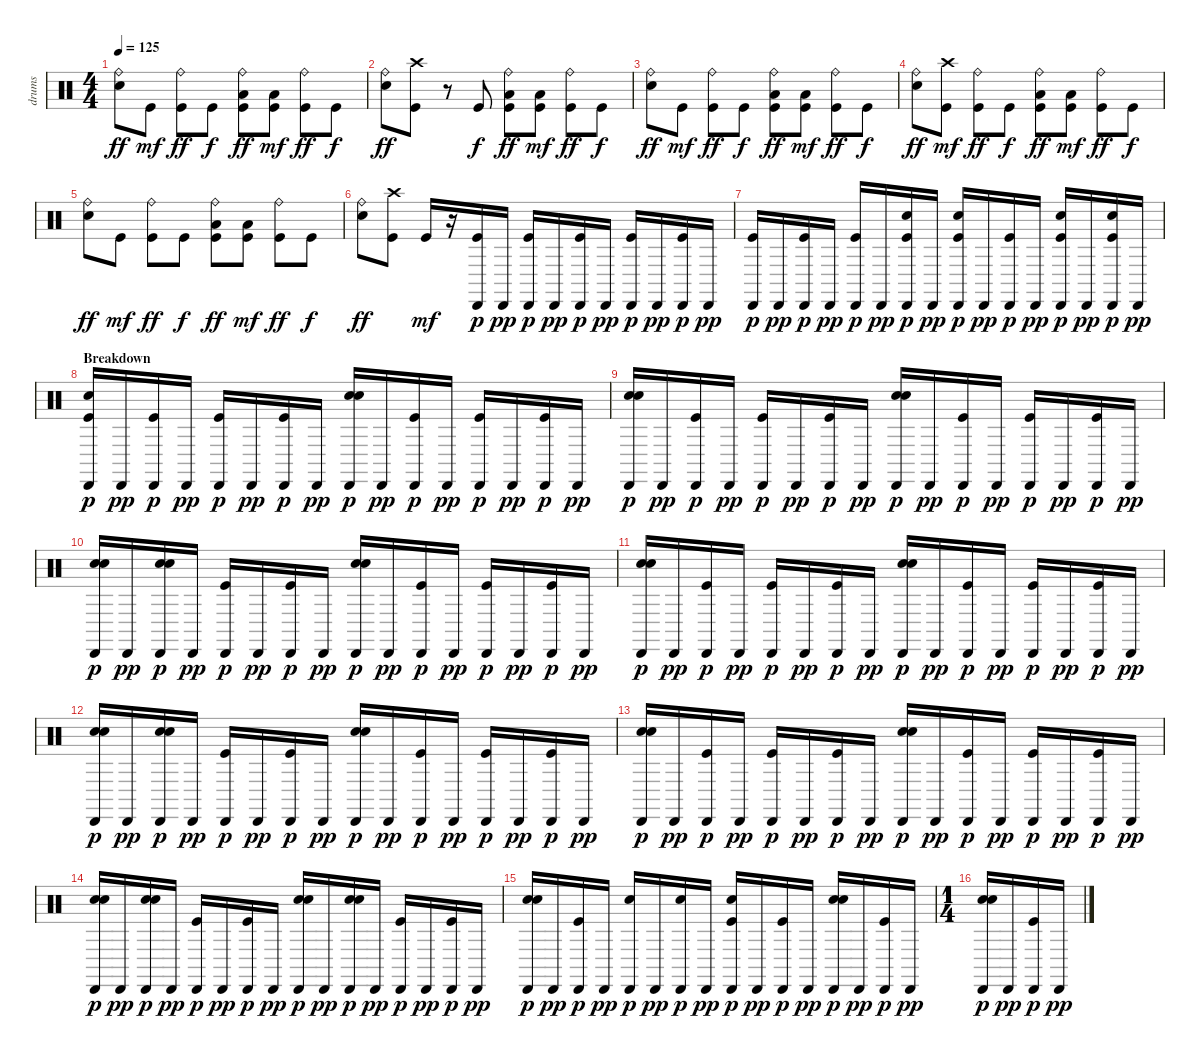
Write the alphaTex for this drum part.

\track ("drums" "drums") {instrument percussion}
\staff {score}
\articulation defaults
\ts (4 4)
\tempo 125
\clef neutral
\ks c
("Electric Snare (hit)" "Ride (bell)").8{dy ff} "Kick (hit)".8{dy mf} ("Kick (hit)" "Ride (bell)").8{dy ff} "Kick (hit)".8{dy f} ("Low Tom (hit)" "Kick (hit)" "Ride (bell)").8{dy ff} ("Low Tom (hit)" "Kick (hit)").8{dy mf} ("Kick (hit)" "Ride (bell)").8{dy ff} "Kick (hit)".8{dy f} |
("Electric Snare (hit)" "Ride (bell)").8{dy ff} ("Kick (hit)" "Crash high (hit)").8 r.8 "Kick (hit)".8{dy f} ("Low Tom (hit)" "Kick (hit)" "Ride (bell)").8{dy ff} ("Low Tom (hit)" "Kick (hit)").8{dy mf} ("Kick (hit)" "Ride (bell)").8{dy ff} "Kick (hit)".8{dy f} |
("Electric Snare (hit)" "Ride (bell)").8{dy ff} "Kick (hit)".8{dy mf} ("Kick (hit)" "Ride (bell)").8{dy ff} "Kick (hit)".8{dy f} ("Low Tom (hit)" "Kick (hit)" "Ride (bell)").8{dy ff} ("Low Tom (hit)" "Kick (hit)").8{dy mf} ("Kick (hit)" "Ride (bell)").8{dy ff} "Kick (hit)".8{dy f} |
("Electric Snare (hit)" "Ride (bell)").8{dy ff} ("Kick (hit)" "Crash high (hit)").8{dy mf} ("Kick (hit)" "Ride (bell)").8{dy ff} "Kick (hit)".8{dy f} ("Low Tom (hit)" "Kick (hit)" "Ride (bell)").8{dy ff} ("Low Tom (hit)" "Kick (hit)").8{dy mf} ("Kick (hit)" "Ride (bell)").8{dy ff} "Kick (hit)".8{dy f} |
("Electric Snare (hit)" "Ride (bell)").8{dy ff} "Kick (hit)".8{dy mf} ("Kick (hit)" "Ride (bell)").8{dy ff} "Kick (hit)".8{dy f} ("Low Tom (hit)" "Kick (hit)" "Ride (bell)").8{dy ff} ("Low Tom (hit)" "Kick (hit)").8{dy mf} ("Kick (hit)" "Ride (bell)").8{dy ff} "Kick (hit)".8{dy f} |
("Electric Snare (hit)" "Ride (bell)").8{dy ff} ("Kick (hit)" "Crash high (hit)").8 "Kick (hit)".16{dy mf} r.16 ("Kick (hit)" "Cabasa (hit)").16{dy p} "Cabasa (hit)".16{dy pp} ("Kick (hit)" "Cabasa (hit)").16{dy p} "Cabasa (hit)".16{dy pp} ("Kick (hit)" "Cabasa (hit)").16{dy p} "Cabasa (hit)".16{dy pp} ("Kick (hit)" "Cabasa (hit)").16{dy p} "Cabasa (hit)".16{dy pp} ("Kick (hit)" "Cabasa (hit)").16{dy p} "Cabasa (hit)".16{dy pp} |
("Kick (hit)" "Cabasa (hit)").16{dy p} "Cabasa (hit)".16{dy pp} ("Kick (hit)" "Cabasa (hit)").16{dy p} "Cabasa (hit)".16{dy pp} ("Kick (hit)" "Cabasa (hit)").16{dy p} "Cabasa (hit)".16{dy pp} ("Electric Snare (hit)" "Kick (hit)" "Cabasa (hit)").16{dy p} "Cabasa (hit)".16{dy pp} ("Electric Snare (hit)" "Kick (hit)" "Cabasa (hit)").16{dy p} "Cabasa (hit)".16{dy pp} ("Kick (hit)" "Cabasa (hit)").16{dy p} "Cabasa (hit)".16{dy pp} ("Electric Snare (hit)" "Kick (hit)" "Cabasa (hit)").16{dy p} "Cabasa (hit)".16{dy pp} ("Electric Snare (hit)" "Kick (hit)" "Cabasa (hit)").16{dy p} "Cabasa (hit)".16{dy pp} |
\section ("" "Breakdown")
("Electric Snare (hit)" "Kick (hit)" "Cabasa (hit)").16{dy p} "Cabasa (hit)".16{dy pp} ("Kick (hit)" "Cabasa (hit)").16{dy p} "Cabasa (hit)".16{dy pp} ("Kick (hit)" "Cabasa (hit)").16{dy p} "Cabasa (hit)".16{dy pp} ("Kick (hit)" "Cabasa (hit)").16{dy p} "Cabasa (hit)".16{dy pp} ("Electric Snare (hit)" "Hand Clap (hit)" "Cabasa (hit)").16{dy p} "Cabasa (hit)".16{dy pp} ("Kick (hit)" "Cabasa (hit)").16{dy p} "Cabasa (hit)".16{dy pp} ("Kick (hit)" "Cabasa (hit)").16{dy p} "Cabasa (hit)".16{dy pp} ("Kick (hit)" "Cabasa (hit)").16{dy p} "Cabasa (hit)".16{dy pp} |
("Electric Snare (hit)" "Hand Clap (hit)" "Cabasa (hit)").16{dy p} "Cabasa (hit)".16{dy pp} ("Kick (hit)" "Cabasa (hit)").16{dy p} "Cabasa (hit)".16{dy pp} ("Kick (hit)" "Cabasa (hit)").16{dy p} "Cabasa (hit)".16{dy pp} ("Kick (hit)" "Cabasa (hit)").16{dy p} "Cabasa (hit)".16{dy pp} ("Electric Snare (hit)" "Hand Clap (hit)" "Cabasa (hit)").16{dy p} "Cabasa (hit)".16{dy pp} ("Kick (hit)" "Cabasa (hit)").16{dy p} "Cabasa (hit)".16{dy pp} ("Kick (hit)" "Cabasa (hit)").16{dy p} "Cabasa (hit)".16{dy pp} ("Kick (hit)" "Cabasa (hit)").16{dy p} "Cabasa (hit)".16{dy pp} |
("Electric Snare (hit)" "Hand Clap (hit)" "Cabasa (hit)").16{dy p} "Cabasa (hit)".16{dy pp} ("Electric Snare (hit)" "Hand Clap (hit)" "Cabasa (hit)").16{dy p} "Cabasa (hit)".16{dy pp} ("Kick (hit)" "Cabasa (hit)").16{dy p} "Cabasa (hit)".16{dy pp} ("Kick (hit)" "Cabasa (hit)").16{dy p} "Cabasa (hit)".16{dy pp} ("Electric Snare (hit)" "Hand Clap (hit)" "Cabasa (hit)").16{dy p} "Cabasa (hit)".16{dy pp} ("Kick (hit)" "Cabasa (hit)").16{dy p} "Cabasa (hit)".16{dy pp} ("Kick (hit)" "Cabasa (hit)").16{dy p} "Cabasa (hit)".16{dy pp} ("Kick (hit)" "Cabasa (hit)").16{dy p} "Cabasa (hit)".16{dy pp} |
("Electric Snare (hit)" "Hand Clap (hit)" "Cabasa (hit)").16{dy p} "Cabasa (hit)".16{dy pp} ("Kick (hit)" "Cabasa (hit)").16{dy p} "Cabasa (hit)".16{dy pp} ("Kick (hit)" "Cabasa (hit)").16{dy p} "Cabasa (hit)".16{dy pp} ("Kick (hit)" "Cabasa (hit)").16{dy p} "Cabasa (hit)".16{dy pp} ("Electric Snare (hit)" "Hand Clap (hit)" "Cabasa (hit)").16{dy p} "Cabasa (hit)".16{dy pp} ("Kick (hit)" "Cabasa (hit)").16{dy p} "Cabasa (hit)".16{dy pp} ("Kick (hit)" "Cabasa (hit)").16{dy p} "Cabasa (hit)".16{dy pp} ("Kick (hit)" "Cabasa (hit)").16{dy p} "Cabasa (hit)".16{dy pp} |
("Electric Snare (hit)" "Hand Clap (hit)" "Cabasa (hit)").16{dy p} "Cabasa (hit)".16{dy pp} ("Electric Snare (hit)" "Hand Clap (hit)" "Cabasa (hit)").16{dy p} "Cabasa (hit)".16{dy pp} ("Kick (hit)" "Cabasa (hit)").16{dy p} "Cabasa (hit)".16{dy pp} ("Kick (hit)" "Cabasa (hit)").16{dy p} "Cabasa (hit)".16{dy pp} ("Electric Snare (hit)" "Hand Clap (hit)" "Cabasa (hit)").16{dy p} "Cabasa (hit)".16{dy pp} ("Kick (hit)" "Cabasa (hit)").16{dy p} "Cabasa (hit)".16{dy pp} ("Kick (hit)" "Cabasa (hit)").16{dy p} "Cabasa (hit)".16{dy pp} ("Kick (hit)" "Cabasa (hit)").16{dy p} "Cabasa (hit)".16{dy pp} |
("Electric Snare (hit)" "Hand Clap (hit)" "Cabasa (hit)").16{dy p} "Cabasa (hit)".16{dy pp} ("Kick (hit)" "Cabasa (hit)").16{dy p} "Cabasa (hit)".16{dy pp} ("Kick (hit)" "Cabasa (hit)").16{dy p} "Cabasa (hit)".16{dy pp} ("Kick (hit)" "Cabasa (hit)").16{dy p} "Cabasa (hit)".16{dy pp} ("Electric Snare (hit)" "Hand Clap (hit)" "Cabasa (hit)").16{dy p} "Cabasa (hit)".16{dy pp} ("Kick (hit)" "Cabasa (hit)").16{dy p} "Cabasa (hit)".16{dy pp} ("Kick (hit)" "Cabasa (hit)").16{dy p} "Cabasa (hit)".16{dy pp} ("Kick (hit)" "Cabasa (hit)").16{dy p} "Cabasa (hit)".16{dy pp} |
("Electric Snare (hit)" "Hand Clap (hit)" "Cabasa (hit)").16{dy p} "Cabasa (hit)".16{dy pp} ("Electric Snare (hit)" "Hand Clap (hit)" "Cabasa (hit)").16{dy p} "Cabasa (hit)".16{dy pp} ("Kick (hit)" "Cabasa (hit)").16{dy p} "Cabasa (hit)".16{dy pp} ("Kick (hit)" "Cabasa (hit)").16{dy p} "Cabasa (hit)".16{dy pp} ("Electric Snare (hit)" "Hand Clap (hit)" "Cabasa (hit)").16{dy p} "Cabasa (hit)".16{dy pp} ("Electric Snare (hit)" "Hand Clap (hit)" "Cabasa (hit)").16{dy p} "Cabasa (hit)".16{dy pp} ("Kick (hit)" "Cabasa (hit)").16{dy p} "Cabasa (hit)".16{dy pp} ("Kick (hit)" "Cabasa (hit)").16{dy p} "Cabasa (hit)".16{dy pp} |
("Electric Snare (hit)" "Hand Clap (hit)" "Cabasa (hit)").16{dy p} "Cabasa (hit)".16{dy pp} ("Kick (hit)" "Cabasa (hit)").16{dy p} "Cabasa (hit)".16{dy pp} ("Electric Snare (hit)" "Cabasa (hit)").16{dy p} "Cabasa (hit)".16{dy pp} ("Electric Snare (hit)" "Cabasa (hit)").16{dy p} "Cabasa (hit)".16{dy pp} ("Hand Clap (hit)" "Kick (hit)" "Cabasa (hit)").16{dy p} "Cabasa (hit)".16{dy pp} ("Kick (hit)" "Cabasa (hit)").16{dy p} "Cabasa (hit)".16{dy pp} ("Electric Snare (hit)" "Hand Clap (hit)" "Cabasa (hit)").16{dy p} "Cabasa (hit)".16{dy pp} ("Kick (hit)" "Cabasa (hit)").16{dy p} "Cabasa (hit)".16{dy pp} |
\ts (1 4)
("Electric Snare (hit)" "Hand Clap (hit)" "Cabasa (hit)").16{dy p} "Cabasa (hit)".16{dy pp} ("Kick (hit)" "Cabasa (hit)").16{dy p} "Cabasa (hit)".16{dy pp}
